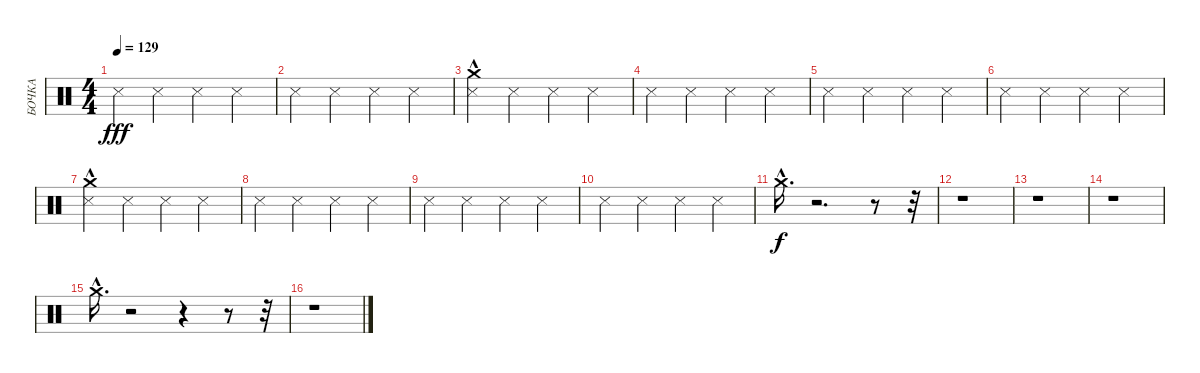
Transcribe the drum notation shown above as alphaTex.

\track ("БОЧКА" "БОЧКА") {instrument percussion}
\staff {score}
\articulation defaults
\ts (4 4)
\tempo 129
\clef neutral
\ks c "Metronome (hit)".4{dy fff} "Metronome (hit)".4 "Metronome (hit)".4 "Metronome (hit)".4
|
"Metronome (hit)".4 "Metronome (hit)".4 "Metronome (hit)".4 "Metronome (hit)".4 |
("Metronome (hit)" "Crash medium (hit)"{hac}).4 "Metronome (hit)".4 "Metronome (hit)".4 "Metronome (hit)".4 |
"Metronome (hit)".4 "Metronome (hit)".4 "Metronome (hit)".4 "Metronome (hit)".4 |
"Metronome (hit)".4 "Metronome (hit)".4 "Metronome (hit)".4 "Metronome (hit)".4 |
"Metronome (hit)".4 "Metronome (hit)".4 "Metronome (hit)".4 "Metronome (hit)".4 |
("Metronome (hit)" "Crash medium (hit)"{hac}).4 "Metronome (hit)".4 "Metronome (hit)".4 "Metronome (hit)".4 |
"Metronome (hit)".4 "Metronome (hit)".4 "Metronome (hit)".4 "Metronome (hit)".4 |
"Metronome (hit)".4 "Metronome (hit)".4 "Metronome (hit)".4 "Metronome (hit)".4 |
"Metronome (hit)".4 "Metronome (hit)".4 "Metronome (hit)".4 "Metronome (hit)".4 |
"Crash medium (hit)"{hac}.16{d dy f} r.2{d} r.8 r.32 |
r.1 |
r.1 |
r.1 |
"Crash medium (hit)"{hac}.16{d} r.2 r.4 r.8 r.32 |
r.1
